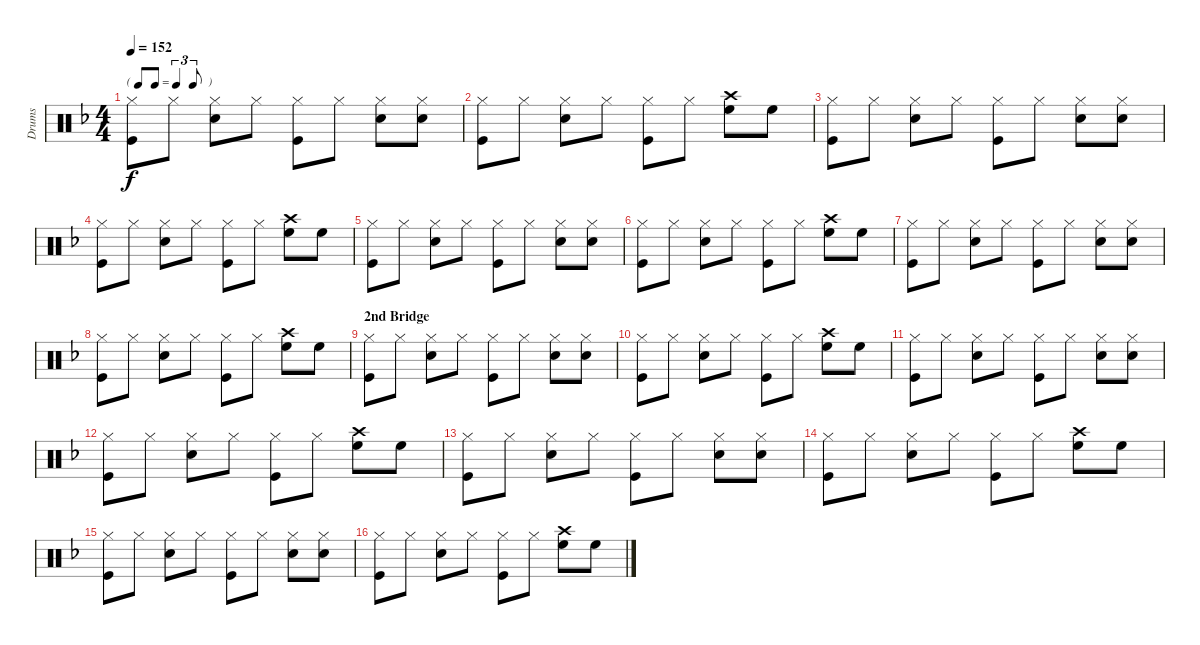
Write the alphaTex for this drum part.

\track ("Drums" "Drums") {instrument percussion}
\staff {score}
\articulation defaults
\ts (4 4)
\tf triplet8th
\tempo 152
\clef neutral
\ks f
("Hi-Hat (closed)" "Kick (hit)").8{dy f} "Hi-Hat (closed)".8 ("Hi-Hat (closed)" "Snare (hit) 2").8 "Hi-Hat (closed)".8 ("Hi-Hat (closed)" "Kick (hit)").8 "Hi-Hat (closed)".8 ("Hi-Hat (closed)" "Snare (hit) 2").8 ("Hi-Hat (closed)" "Snare (hit) 2").8 |
("Hi-Hat (closed)" "Kick (hit)").8 "Hi-Hat (closed)".8 ("Hi-Hat (closed)" "Snare (hit) 2").8 "Hi-Hat (closed)".8 ("Hi-Hat (closed)" "Kick (hit)").8 "Hi-Hat (closed)".8 ("Crash high (hit)" "High Floor Tom (hit)").8 "High Floor Tom (hit)".8 |
("Hi-Hat (closed)" "Kick (hit)").8 "Hi-Hat (closed)".8 ("Hi-Hat (closed)" "Snare (hit) 2").8 "Hi-Hat (closed)".8 ("Hi-Hat (closed)" "Kick (hit)").8 "Hi-Hat (closed)".8 ("Hi-Hat (closed)" "Snare (hit) 2").8 ("Hi-Hat (closed)" "Snare (hit) 2").8 |
("Hi-Hat (closed)" "Kick (hit)").8 "Hi-Hat (closed)".8 ("Hi-Hat (closed)" "Snare (hit) 2").8 "Hi-Hat (closed)".8 ("Hi-Hat (closed)" "Kick (hit)").8 "Hi-Hat (closed)".8 ("Crash high (hit)" "High Floor Tom (hit)").8 "High Floor Tom (hit)".8 |
("Hi-Hat (closed)" "Kick (hit)").8 "Hi-Hat (closed)".8 ("Hi-Hat (closed)" "Snare (hit) 2").8 "Hi-Hat (closed)".8 ("Hi-Hat (closed)" "Kick (hit)").8 "Hi-Hat (closed)".8 ("Hi-Hat (closed)" "Snare (hit) 2").8 ("Hi-Hat (closed)" "Snare (hit) 2").8 |
("Hi-Hat (closed)" "Kick (hit)").8 "Hi-Hat (closed)".8 ("Hi-Hat (closed)" "Snare (hit) 2").8 "Hi-Hat (closed)".8 ("Hi-Hat (closed)" "Kick (hit)").8 "Hi-Hat (closed)".8 ("Crash high (hit)" "High Floor Tom (hit)").8 "High Floor Tom (hit)".8 |
("Hi-Hat (closed)" "Kick (hit)").8 "Hi-Hat (closed)".8 ("Hi-Hat (closed)" "Snare (hit) 2").8 "Hi-Hat (closed)".8 ("Hi-Hat (closed)" "Kick (hit)").8 "Hi-Hat (closed)".8 ("Hi-Hat (closed)" "Snare (hit) 2").8 ("Hi-Hat (closed)" "Snare (hit) 2").8 |
("Hi-Hat (closed)" "Kick (hit)").8 "Hi-Hat (closed)".8 ("Hi-Hat (closed)" "Snare (hit) 2").8 "Hi-Hat (closed)".8 ("Hi-Hat (closed)" "Kick (hit)").8 "Hi-Hat (closed)".8 ("Crash high (hit)" "High Floor Tom (hit)").8 "High Floor Tom (hit)".8 |
\section ("" "2nd Bridge")
("Hi-Hat (closed)" "Kick (hit)").8 "Hi-Hat (closed)".8 ("Hi-Hat (closed)" "Snare (hit) 2").8 "Hi-Hat (closed)".8 ("Hi-Hat (closed)" "Kick (hit)").8 "Hi-Hat (closed)".8 ("Hi-Hat (closed)" "Snare (hit) 2").8 ("Hi-Hat (closed)" "Snare (hit) 2").8 |
("Hi-Hat (closed)" "Kick (hit)").8 "Hi-Hat (closed)".8 ("Hi-Hat (closed)" "Snare (hit) 2").8 "Hi-Hat (closed)".8 ("Hi-Hat (closed)" "Kick (hit)").8 "Hi-Hat (closed)".8 ("Crash high (hit)" "High Floor Tom (hit)").8 "High Floor Tom (hit)".8 |
("Hi-Hat (closed)" "Kick (hit)").8 "Hi-Hat (closed)".8 ("Hi-Hat (closed)" "Snare (hit) 2").8 "Hi-Hat (closed)".8 ("Hi-Hat (closed)" "Kick (hit)").8 "Hi-Hat (closed)".8 ("Hi-Hat (closed)" "Snare (hit) 2").8 ("Hi-Hat (closed)" "Snare (hit) 2").8 |
("Hi-Hat (closed)" "Kick (hit)").8 "Hi-Hat (closed)".8 ("Hi-Hat (closed)" "Snare (hit) 2").8 "Hi-Hat (closed)".8 ("Hi-Hat (closed)" "Kick (hit)").8 "Hi-Hat (closed)".8 ("Crash high (hit)" "High Floor Tom (hit)").8 "High Floor Tom (hit)".8 |
("Hi-Hat (closed)" "Kick (hit)").8 "Hi-Hat (closed)".8 ("Hi-Hat (closed)" "Snare (hit) 2").8 "Hi-Hat (closed)".8 ("Hi-Hat (closed)" "Kick (hit)").8 "Hi-Hat (closed)".8 ("Hi-Hat (closed)" "Snare (hit) 2").8 ("Hi-Hat (closed)" "Snare (hit) 2").8 |
("Hi-Hat (closed)" "Kick (hit)").8 "Hi-Hat (closed)".8 ("Hi-Hat (closed)" "Snare (hit) 2").8 "Hi-Hat (closed)".8 ("Hi-Hat (closed)" "Kick (hit)").8 "Hi-Hat (closed)".8 ("Crash high (hit)" "High Floor Tom (hit)").8 "High Floor Tom (hit)".8 |
("Hi-Hat (closed)" "Kick (hit)").8 "Hi-Hat (closed)".8 ("Hi-Hat (closed)" "Snare (hit) 2").8 "Hi-Hat (closed)".8 ("Hi-Hat (closed)" "Kick (hit)").8 "Hi-Hat (closed)".8 ("Hi-Hat (closed)" "Snare (hit) 2").8 ("Hi-Hat (closed)" "Snare (hit) 2").8 |
("Hi-Hat (closed)" "Kick (hit)").8 "Hi-Hat (closed)".8 ("Hi-Hat (closed)" "Snare (hit) 2").8 "Hi-Hat (closed)".8 ("Hi-Hat (closed)" "Kick (hit)").8 "Hi-Hat (closed)".8 ("Crash high (hit)" "High Floor Tom (hit)").8 "High Floor Tom (hit)".8
